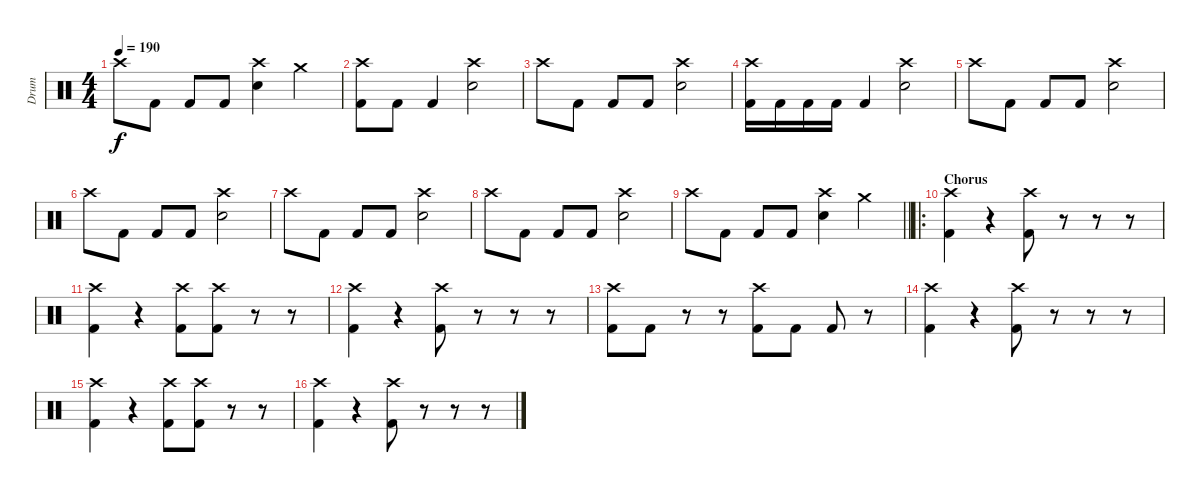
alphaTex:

\track ("Drum" "Drum") {instrument percussion}
\staff {score}
\articulation defaults
\ts (4 4)
\tempo 190
\clef neutral
\ks c "Crash high (hit)".8{dy f} "Kick (hit) 2".8 "Kick (hit) 2".8 "Kick (hit) 2".8
("Crash high (hit)" "Electric Snare (hit)").4 "Crash medium (hit)".4 |
("Crash high (hit)" "Kick (hit) 2").8 "Kick (hit) 2".8 "Kick (hit) 2".4 ("Crash high (hit)" "Electric Snare (hit)").2 |
"Crash high (hit)".8 "Kick (hit) 2".8 "Kick (hit) 2".8 "Kick (hit) 2".8 ("Crash high (hit)" "Electric Snare (hit)").2 |
("Crash high (hit)" "Kick (hit) 2").16 "Kick (hit) 2".16 "Kick (hit) 2".16 "Kick (hit) 2".16 "Kick (hit) 2".4 ("Crash high (hit)" "Electric Snare (hit)").2 |
"Crash high (hit)".8 "Kick (hit) 2".8 "Kick (hit) 2".8 "Kick (hit) 2".8 ("Crash high (hit)" "Electric Snare (hit)").2 |
"Crash high (hit)".8 "Kick (hit) 2".8 "Kick (hit) 2".8 "Kick (hit) 2".8 ("Crash high (hit)" "Electric Snare (hit)").2 |
"Crash high (hit)".8 "Kick (hit) 2".8 "Kick (hit) 2".8 "Kick (hit) 2".8 ("Crash high (hit)" "Electric Snare (hit)").2 |
"Crash high (hit)".8 "Kick (hit) 2".8 "Kick (hit) 2".8 "Kick (hit) 2".8 ("Crash high (hit)" "Electric Snare (hit)").2 |
\barLineRight lightlight "Crash high (hit)".8 "Kick (hit) 2".8 "Kick (hit) 2".8 "Kick (hit) 2".8
("Crash high (hit)" "Electric Snare (hit)").4 "Crash medium (hit)".4 |
\ro
\section ("" "Chorus")
("Crash high (hit)" "Kick (hit) 2").4 r.4 ("Crash high (hit)" "Kick (hit) 2").8 r.8 r.8 r.8 |
("Crash high (hit)" "Kick (hit) 2").4 r.4 ("Crash high (hit)" "Kick (hit) 2").8 ("Crash high (hit)" "Kick (hit) 2").8 r.8 r.8 |
("Crash high (hit)" "Kick (hit) 2").4 r.4 ("Crash high (hit)" "Kick (hit) 2").8 r.8 r.8 r.8 |
("Crash high (hit)" "Kick (hit) 2").8 "Kick (hit) 2".8 r.8 r.8 ("Crash high (hit)" "Kick (hit) 2").8 "Kick (hit) 2".8 "Kick (hit) 2".8 r.8 |
("Crash high (hit)" "Kick (hit) 2").4 r.4 ("Crash high (hit)" "Kick (hit) 2").8 r.8 r.8 r.8 |
("Crash high (hit)" "Kick (hit) 2").4 r.4 ("Crash high (hit)" "Kick (hit) 2").8 ("Crash high (hit)" "Kick (hit) 2").8 r.8 r.8 |
("Crash high (hit)" "Kick (hit) 2").4 r.4 ("Crash high (hit)" "Kick (hit) 2").8 r.8 r.8 r.8
